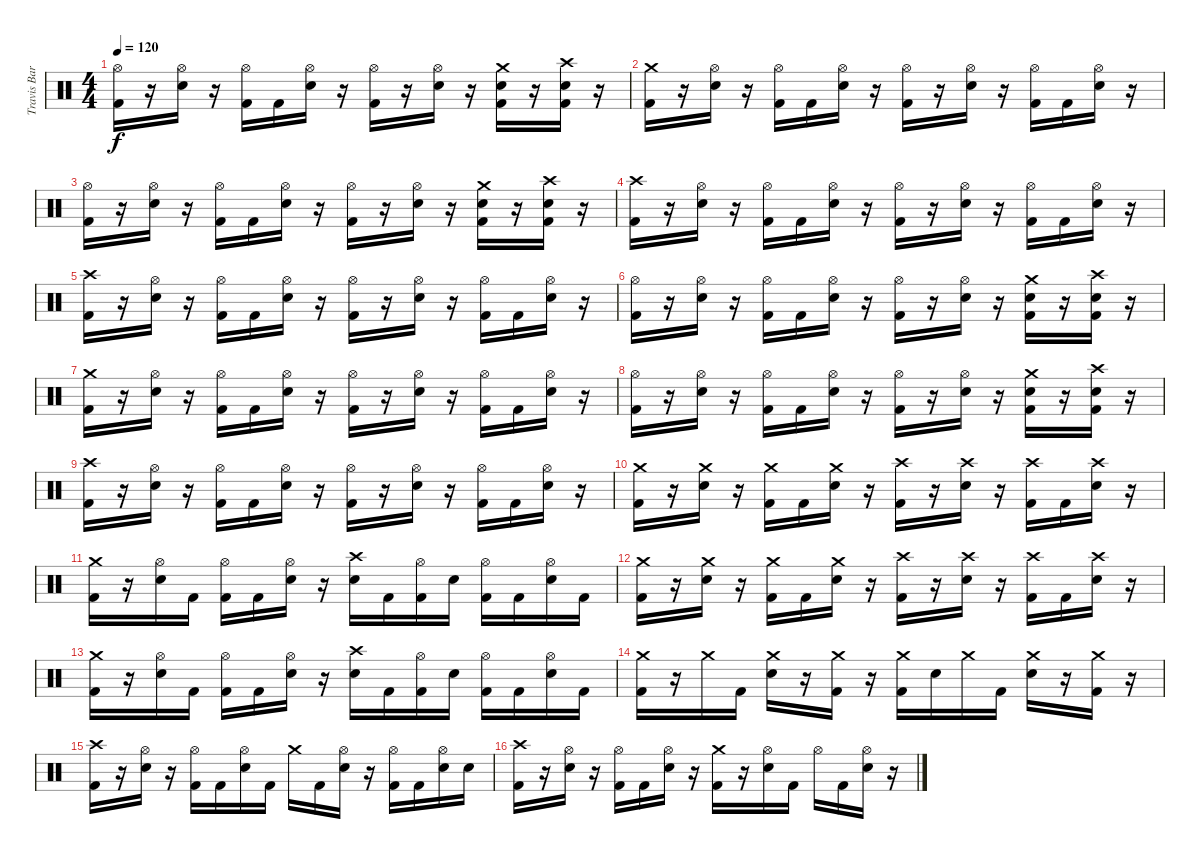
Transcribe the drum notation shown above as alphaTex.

\track ("Travis Barker Drums" "Travis Bar") {instrument percussion}
\staff {score}
\articulation defaults
\ts (4 4)
\tempo 120
\clef neutral
\ks c
("Hi-Hat (open)" "Kick (hit) 2").16{dy f} r.16 ("Hi-Hat (open)" "Snare (hit) 2").16 r.16 ("Hi-Hat (open)" "Kick (hit) 2").16 "Kick (hit) 2".16 ("Hi-Hat (open)" "Snare (hit) 2").16 r.16 ("Hi-Hat (open)" "Kick (hit) 2").16 r.16 ("Hi-Hat (open)" "Snare (hit) 2").16 r.16 ("Crash medium (hit)" "Snare (hit) 2" "Kick (hit) 2").16 r.16 ("Crash high (hit)" "Snare (hit) 2" "Kick (hit) 2").16 r.16 |
("Crash medium (hit)" "Kick (hit) 2").16 r.16 ("Hi-Hat (open)" "Snare (hit) 2").16 r.16 ("Hi-Hat (open)" "Kick (hit) 2").16 "Kick (hit) 2".16 ("Hi-Hat (open)" "Snare (hit) 2").16 r.16 ("Hi-Hat (open)" "Kick (hit) 2").16 r.16 ("Hi-Hat (open)" "Snare (hit) 2").16 r.16 ("Hi-Hat (open)" "Kick (hit) 2").16 "Kick (hit) 2".16 ("Hi-Hat (open)" "Snare (hit) 2").16 r.16 |
("Hi-Hat (open)" "Kick (hit) 2").16 r.16 ("Hi-Hat (open)" "Snare (hit) 2").16 r.16 ("Hi-Hat (open)" "Kick (hit) 2").16 "Kick (hit) 2".16 ("Hi-Hat (open)" "Snare (hit) 2").16 r.16 ("Hi-Hat (open)" "Kick (hit) 2").16 r.16 ("Hi-Hat (open)" "Snare (hit) 2").16 r.16 ("Crash medium (hit)" "Snare (hit) 2" "Kick (hit) 2").16 r.16 ("Crash high (hit)" "Snare (hit) 2" "Kick (hit) 2").16 r.16 |
("Crash high (hit)" "Kick (hit) 2").16 r.16 ("Hi-Hat (open)" "Snare (hit) 2").16 r.16 ("Hi-Hat (open)" "Kick (hit) 2").16 "Kick (hit) 2".16 ("Hi-Hat (open)" "Snare (hit) 2").16 r.16 ("Hi-Hat (open)" "Kick (hit) 2").16 r.16 ("Hi-Hat (open)" "Snare (hit) 2").16 r.16 ("Hi-Hat (open)" "Kick (hit) 2").16 "Kick (hit) 2".16 ("Hi-Hat (open)" "Snare (hit) 2").16 r.16 |
("Crash high (hit)" "Kick (hit) 2").16 r.16 ("Hi-Hat (open)" "Snare (hit) 2").16 r.16 ("Hi-Hat (open)" "Kick (hit) 2").16 "Kick (hit) 2".16 ("Hi-Hat (open)" "Snare (hit) 2").16 r.16 ("Hi-Hat (open)" "Kick (hit) 2").16 r.16 ("Hi-Hat (open)" "Snare (hit) 2").16 r.16 ("Hi-Hat (open)" "Kick (hit) 2").16 "Kick (hit) 2".16 ("Hi-Hat (open)" "Snare (hit) 2").16 r.16 |
("Hi-Hat (open)" "Kick (hit) 2").16 r.16 ("Hi-Hat (open)" "Snare (hit) 2").16 r.16 ("Hi-Hat (open)" "Kick (hit) 2").16 "Kick (hit) 2".16 ("Hi-Hat (open)" "Snare (hit) 2").16 r.16 ("Hi-Hat (open)" "Kick (hit) 2").16 r.16 ("Hi-Hat (open)" "Snare (hit) 2").16 r.16 ("Crash medium (hit)" "Snare (hit) 2" "Kick (hit) 2").16 r.16 ("Crash high (hit)" "Snare (hit) 2" "Kick (hit) 2").16 r.16 |
("Crash medium (hit)" "Kick (hit) 2").16 r.16 ("Hi-Hat (open)" "Snare (hit) 2").16 r.16 ("Hi-Hat (open)" "Kick (hit) 2").16 "Kick (hit) 2".16 ("Hi-Hat (open)" "Snare (hit) 2").16 r.16 ("Hi-Hat (open)" "Kick (hit) 2").16 r.16 ("Hi-Hat (open)" "Snare (hit) 2").16 r.16 ("Hi-Hat (open)" "Kick (hit) 2").16 "Kick (hit) 2".16 ("Hi-Hat (open)" "Snare (hit) 2").16 r.16 |
("Hi-Hat (open)" "Kick (hit) 2").16 r.16 ("Hi-Hat (open)" "Snare (hit) 2").16 r.16 ("Hi-Hat (open)" "Kick (hit) 2").16 "Kick (hit) 2".16 ("Hi-Hat (open)" "Snare (hit) 2").16 r.16 ("Hi-Hat (open)" "Kick (hit) 2").16 r.16 ("Hi-Hat (open)" "Snare (hit) 2").16 r.16 ("Crash medium (hit)" "Snare (hit) 2" "Kick (hit) 2").16 r.16 ("Crash high (hit)" "Snare (hit) 2" "Kick (hit) 2").16 r.16 |
("Crash high (hit)" "Kick (hit) 2").16 r.16 ("Hi-Hat (open)" "Snare (hit) 2").16 r.16 ("Hi-Hat (open)" "Kick (hit) 2").16 "Kick (hit) 2".16 ("Hi-Hat (open)" "Snare (hit) 2").16 r.16 ("Hi-Hat (open)" "Kick (hit) 2").16 r.16 ("Hi-Hat (open)" "Snare (hit) 2").16 r.16 ("Hi-Hat (open)" "Kick (hit) 2").16 "Kick (hit) 2".16 ("Hi-Hat (open)" "Snare (hit) 2").16 r.16 |
("Crash medium (hit)" "Kick (hit) 2").16 r.16 ("Crash medium (hit)" "Snare (hit) 2").16 r.16 ("Crash medium (hit)" "Kick (hit) 2").16 "Kick (hit) 2".16 ("Crash medium (hit)" "Snare (hit) 2").16 r.16 ("Crash high (hit)" "Kick (hit) 2").16 r.16 ("Crash high (hit)" "Snare (hit) 2").16 r.16 ("Crash high (hit)" "Kick (hit) 2").16 "Kick (hit) 2".16 ("Crash high (hit)" "Snare (hit) 2").16 r.16 |
("Crash medium (hit)" "Kick (hit) 2").16 r.16 ("Hi-Hat (open)" "Snare (hit) 2").16 "Kick (hit) 2".16 ("Hi-Hat (open)" "Kick (hit) 2").16 "Kick (hit) 2".16 ("Hi-Hat (open)" "Snare (hit) 2").16 r.16 ("Crash high (hit)" "Snare (hit) 2").16 "Kick (hit) 2".16 ("Hi-Hat (open)" "Kick (hit) 2").16 "Snare (hit) 2".16 ("Hi-Hat (open)" "Kick (hit) 2").16 "Kick (hit) 2".16 ("Hi-Hat (open)" "Snare (hit) 2").16 "Kick (hit) 2".16 |
("Crash medium (hit)" "Kick (hit) 2").16 r.16 ("Crash medium (hit)" "Snare (hit) 2").16 r.16 ("Crash medium (hit)" "Kick (hit) 2").16 "Kick (hit) 2".16 ("Crash medium (hit)" "Snare (hit) 2").16 r.16 ("Crash high (hit)" "Kick (hit) 2").16 r.16 ("Crash high (hit)" "Snare (hit) 2").16 r.16 ("Crash high (hit)" "Kick (hit) 2").16 "Kick (hit) 2".16 ("Crash high (hit)" "Snare (hit) 2").16 r.16 |
("Crash medium (hit)" "Kick (hit) 2").16 r.16 ("Hi-Hat (open)" "Snare (hit) 2").16 "Kick (hit) 2".16 ("Hi-Hat (open)" "Kick (hit) 2").16 "Kick (hit) 2".16 ("Hi-Hat (open)" "Snare (hit) 2").16 r.16 ("Crash high (hit)" "Snare (hit) 2").16 "Kick (hit) 2".16 ("Hi-Hat (open)" "Kick (hit) 2").16 "Snare (hit) 2".16 ("Hi-Hat (open)" "Kick (hit) 2").16 "Kick (hit) 2".16 ("Hi-Hat (open)" "Snare (hit) 2").16 "Kick (hit) 2".16 |
("Crash medium (hit)" "Kick (hit) 2").16 r.16 "Crash medium (hit)".16 "Kick (hit) 2".16 ("Crash medium (hit)" "Snare (hit) 2").16 r.16 ("Crash medium (hit)" "Kick (hit) 2").16 r.16 ("Crash medium (hit)" "Kick (hit) 2").16 "Snare (hit) 2".16 "Crash medium (hit)".16 "Kick (hit) 2".16 ("Crash medium (hit)" "Snare (hit) 2").16 r.16 ("Crash medium (hit)" "Kick (hit) 2").16 r.16 |
("Crash high (hit)" "Kick (hit) 2").16 r.16 ("Hi-Hat (open)" "Snare (hit) 2").16 r.16 ("Hi-Hat (open)" "Kick (hit) 2").16 "Kick (hit) 2".16 ("Hi-Hat (open)" "Snare (hit) 2").16 "Kick (hit) 2".16 "Crash medium (hit)".16 "Kick (hit) 2".16 ("Hi-Hat (open)" "Snare (hit) 2").16 r.16 ("Hi-Hat (open)" "Kick (hit) 2").16 "Kick (hit) 2".16 ("Hi-Hat (open)" "Snare (hit) 2").16 "Snare (hit) 2".16 |
("Crash high (hit)" "Kick (hit) 2").16 r.16 ("Hi-Hat (open)" "Snare (hit) 2").16 r.16 ("Hi-Hat (open)" "Kick (hit) 2").16 "Kick (hit) 2".16 ("Hi-Hat (open)" "Snare (hit) 2").16 r.16 ("Crash medium (hit)" "Kick (hit) 2").16 r.16 ("Hi-Hat (open)" "Snare (hit) 2").16 "Kick (hit) 2".16 "Hi-Hat (open)".16 "Kick (hit) 2".16 ("Hi-Hat (open)" "Snare (hit) 2").16 r.16
